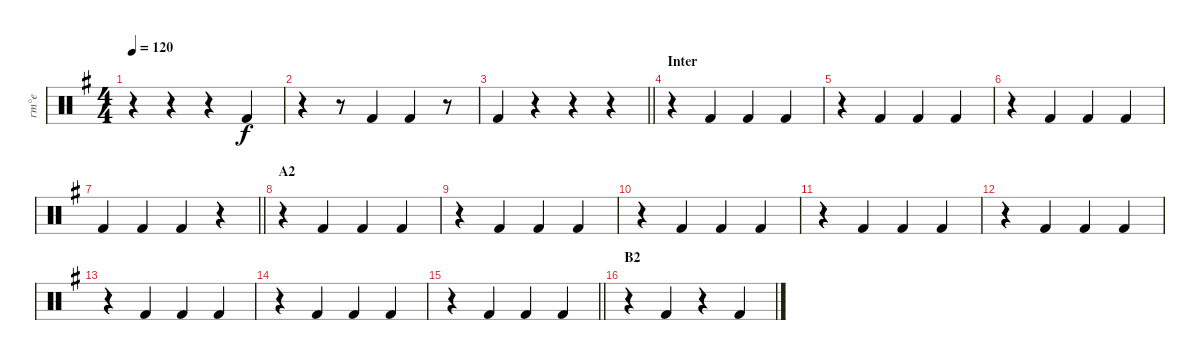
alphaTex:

\track ("ґт°е" "ґт°е") {instrument percussion}
\staff {score}
\articulation defaults
\ts (4 4)
\tempo 120
\clef neutral
\ks g
r.4{dy f} r.4 r.4 "Kick (hit) 2".4 |
r.4 r.8 "Kick (hit) 2".4 "Kick (hit) 2".4 r.8 |
\barLineRight lightlight "Kick (hit) 2".4
r.4 r.4 r.4 |
\section ("" "Inter")
r.4 "Kick (hit) 2".4 "Kick (hit) 2".4 "Kick (hit) 2".4 |
r.4 "Kick (hit) 2".4 "Kick (hit) 2".4 "Kick (hit) 2".4 |
r.4 "Kick (hit) 2".4 "Kick (hit) 2".4 "Kick (hit) 2".4 |
\barLineRight lightlight "Kick (hit) 2".4 "Kick (hit) 2".4 "Kick (hit) 2".4
r.4 |
\section ("" "A2")
r.4 "Kick (hit) 2".4 "Kick (hit) 2".4 "Kick (hit) 2".4 |
r.4 "Kick (hit) 2".4 "Kick (hit) 2".4 "Kick (hit) 2".4 |
r.4 "Kick (hit) 2".4 "Kick (hit) 2".4 "Kick (hit) 2".4 |
r.4 "Kick (hit) 2".4 "Kick (hit) 2".4 "Kick (hit) 2".4 |
r.4 "Kick (hit) 2".4 "Kick (hit) 2".4 "Kick (hit) 2".4 |
r.4 "Kick (hit) 2".4 "Kick (hit) 2".4 "Kick (hit) 2".4 |
r.4 "Kick (hit) 2".4 "Kick (hit) 2".4 "Kick (hit) 2".4 |
\barLineRight lightlight
r.4 "Kick (hit) 2".4 "Kick (hit) 2".4 "Kick (hit) 2".4 |
\section ("" "B2")
r.4 "Kick (hit) 2".4 r.4 "Kick (hit) 2".4
